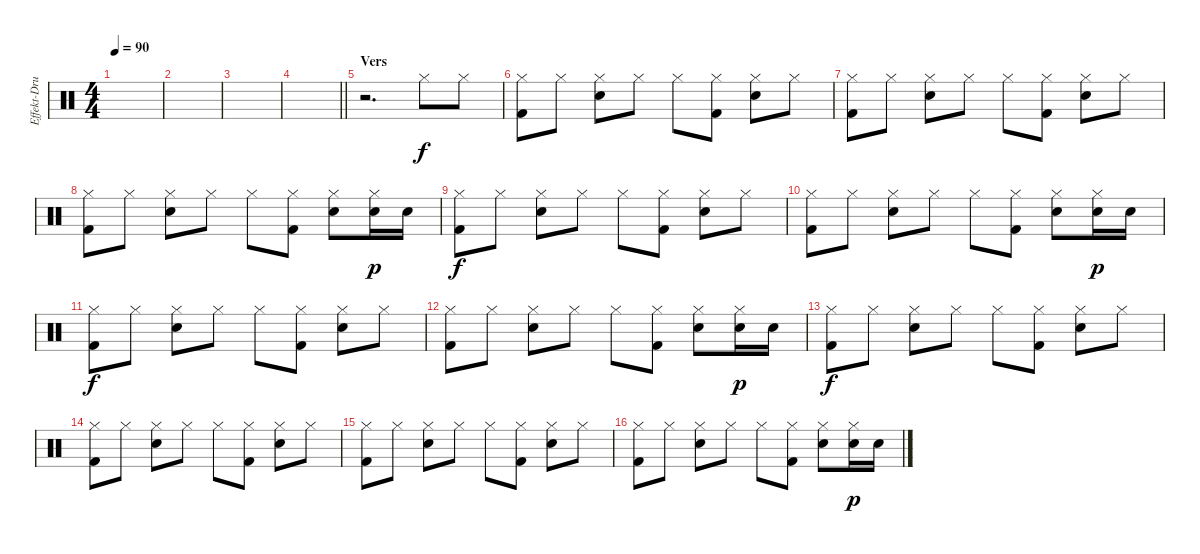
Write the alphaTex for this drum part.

\track ("Effekt-Drums" "Effekt-Dru") {instrument percussion}
\staff {score}
\articulation defaults
\ts (4 4)
\tempo 90
\clef neutral
\ks c
|
|
|
\barLineRight lightlight
|
\section ("" "Vers")
r.2{d} "Hi-Hat (closed)".8 "Hi-Hat (closed)".8 |
("Hi-Hat (closed)" "Kick (hit) 2").8 "Hi-Hat (closed)".8 ("Snare (hit) 2" "Hi-Hat (closed)").8 "Hi-Hat (closed)".8 "Hi-Hat (closed)".8 ("Hi-Hat (closed)" "Kick (hit) 2").8 ("Snare (hit) 2" "Hi-Hat (closed)").8 "Hi-Hat (closed)".8 |
("Hi-Hat (closed)" "Kick (hit) 2").8 "Hi-Hat (closed)".8 ("Snare (hit) 2" "Hi-Hat (closed)").8 "Hi-Hat (closed)".8 "Hi-Hat (closed)".8 ("Hi-Hat (closed)" "Kick (hit) 2").8 ("Snare (hit) 2" "Hi-Hat (closed)").8 "Hi-Hat (closed)".8 |
("Hi-Hat (closed)" "Kick (hit) 2").8 "Hi-Hat (closed)".8 ("Snare (hit) 2" "Hi-Hat (closed)").8 "Hi-Hat (closed)".8 "Hi-Hat (closed)".8 ("Hi-Hat (closed)" "Kick (hit) 2").8 ("Snare (hit) 2" "Hi-Hat (closed)").8 ("Snare (hit) 2" "Hi-Hat (closed)").16{dy p} "Snare (hit) 2".16 |
("Hi-Hat (closed)" "Kick (hit) 2").8{dy f} "Hi-Hat (closed)".8 ("Snare (hit) 2" "Hi-Hat (closed)").8 "Hi-Hat (closed)".8 "Hi-Hat (closed)".8 ("Hi-Hat (closed)" "Kick (hit) 2").8 ("Snare (hit) 2" "Hi-Hat (closed)").8 "Hi-Hat (closed)".8 |
("Hi-Hat (closed)" "Kick (hit) 2").8 "Hi-Hat (closed)".8 ("Snare (hit) 2" "Hi-Hat (closed)").8 "Hi-Hat (closed)".8 "Hi-Hat (closed)".8 ("Hi-Hat (closed)" "Kick (hit) 2").8 ("Snare (hit) 2" "Hi-Hat (closed)").8 ("Snare (hit) 2" "Hi-Hat (closed)").16{dy p} "Snare (hit) 2".16 |
("Hi-Hat (closed)" "Kick (hit) 2").8{dy f} "Hi-Hat (closed)".8 ("Snare (hit) 2" "Hi-Hat (closed)").8 "Hi-Hat (closed)".8 "Hi-Hat (closed)".8 ("Hi-Hat (closed)" "Kick (hit) 2").8 ("Snare (hit) 2" "Hi-Hat (closed)").8 "Hi-Hat (closed)".8 |
("Hi-Hat (closed)" "Kick (hit) 2").8 "Hi-Hat (closed)".8 ("Snare (hit) 2" "Hi-Hat (closed)").8 "Hi-Hat (closed)".8 "Hi-Hat (closed)".8 ("Hi-Hat (closed)" "Kick (hit) 2").8 ("Snare (hit) 2" "Hi-Hat (closed)").8 ("Snare (hit) 2" "Hi-Hat (closed)").16{dy p} "Snare (hit) 2".16 |
("Hi-Hat (closed)" "Kick (hit) 2").8{dy f} "Hi-Hat (closed)".8 ("Snare (hit) 2" "Hi-Hat (closed)").8 "Hi-Hat (closed)".8 "Hi-Hat (closed)".8 ("Hi-Hat (closed)" "Kick (hit) 2").8 ("Snare (hit) 2" "Hi-Hat (closed)").8 "Hi-Hat (closed)".8 |
("Hi-Hat (closed)" "Kick (hit) 2").8 "Hi-Hat (closed)".8 ("Snare (hit) 2" "Hi-Hat (closed)").8 "Hi-Hat (closed)".8 "Hi-Hat (closed)".8 ("Hi-Hat (closed)" "Kick (hit) 2").8 ("Snare (hit) 2" "Hi-Hat (closed)").8 "Hi-Hat (closed)".8 |
("Hi-Hat (closed)" "Kick (hit) 2").8 "Hi-Hat (closed)".8 ("Snare (hit) 2" "Hi-Hat (closed)").8 "Hi-Hat (closed)".8 "Hi-Hat (closed)".8 ("Hi-Hat (closed)" "Kick (hit) 2").8 ("Snare (hit) 2" "Hi-Hat (closed)").8 "Hi-Hat (closed)".8 |
("Hi-Hat (closed)" "Kick (hit) 2").8 "Hi-Hat (closed)".8 ("Snare (hit) 2" "Hi-Hat (closed)").8 "Hi-Hat (closed)".8 "Hi-Hat (closed)".8 ("Hi-Hat (closed)" "Kick (hit) 2").8 ("Snare (hit) 2" "Hi-Hat (closed)").8 ("Snare (hit) 2" "Hi-Hat (closed)").16{dy p} "Snare (hit) 2".16
